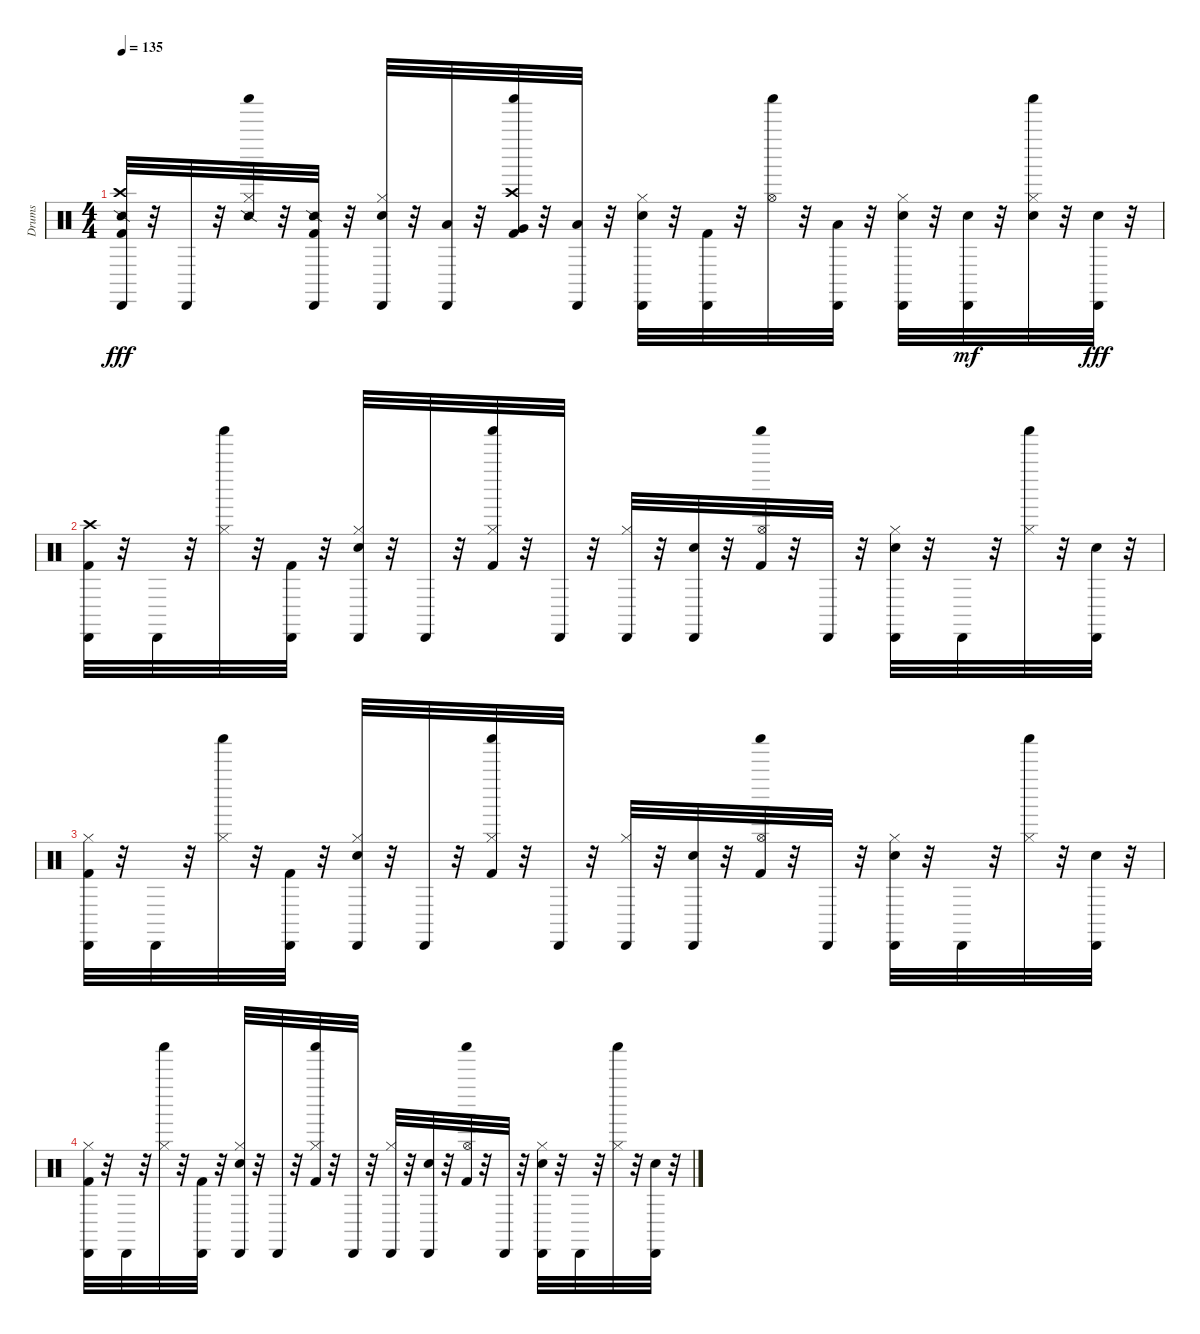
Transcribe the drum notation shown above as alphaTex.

\track ("Drums" "Drums") {instrument percussion}
\staff {score}
\articulation defaults
\ts (4 4)
\tempo 135
\clef neutral
\ks c
("Crash high (hit)" "Kick (hit) 2" "Cabasa (hit)" "Snare (side stick) 2").32{dy fff} r.32 "Cabasa (hit)".32 r.32 ("Shaker (hit)" "Hi-Hat (closed)" "Snare (side stick) 2").32 r.32 ("Kick (hit) 2" "Cabasa (hit)" "Snare (side stick) 2").32 r.32 ("Snare (hit) 2" "Hi-Hat (closed)" "Cabasa (hit)").32 r.32 ("Cabasa (hit)" "Low Tom (hit)").32 r.32 ("Kick (hit) 2" "Shaker (hit)" "Crash high (hit)" "Very Low Tom (hit)").32 r.32 ("Cabasa (hit)" "Low Floor Tom (hit)").32 r.32 ("Hi-Hat (closed)" "Cabasa (hit)" "Snare (hit) 2").32 r.32 ("Cabasa (hit)" "Kick (hit) 2").32 r.32 ("Shaker (hit)" "Hi-Hat (open)").32 r.32 ("Cabasa (hit)" "Low Floor Tom (hit)").32 r.32 ("Snare (hit) 2" "Hi-Hat (closed)" "Cabasa (hit)").32 r.32 ("Cabasa (hit)" "Snare (hit) 2").32{dy mf} r.32 ("Shaker (hit)" "Hi-Hat (closed)" "Snare (hit) 2").32 r.32 ("Snare (hit) 2" "Cabasa (hit)").32{dy fff} r.32 |
("Crash high (hit)" "Kick (hit) 2" "Cabasa (hit)").32 r.32 "Cabasa (hit)".32 r.32 ("Shaker (hit)" "Hi-Hat (closed)").32 r.32 ("Kick (hit) 2" "Cabasa (hit)").32 r.32 ("Snare (hit) 2" "Hi-Hat (closed)" "Cabasa (hit)").32 r.32 "Cabasa (hit)".32 r.32 ("Kick (hit) 2" "Shaker (hit)" "Hi-Hat (closed)").32 r.32 "Cabasa (hit)".32 r.32 ("Hi-Hat (closed)" "Cabasa (hit)").32 r.32 ("Snare (hit) 2" "Cabasa (hit)").32 r.32 ("Kick (hit) 2" "Shaker (hit)" "Hi-Hat (open)").32 r.32 "Cabasa (hit)".32 r.32 ("Snare (hit) 2" "Hi-Hat (closed)" "Cabasa (hit)").32 r.32 "Cabasa (hit)".32 r.32 ("Shaker (hit)" "Hi-Hat (closed)").32 r.32 ("Snare (hit) 2" "Cabasa (hit)").32 r.32 |
("Hi-Hat (closed)" "Kick (hit) 2" "Cabasa (hit)").32 r.32 "Cabasa (hit)".32 r.32 ("Shaker (hit)" "Hi-Hat (closed)").32 r.32 ("Kick (hit) 2" "Cabasa (hit)").32 r.32 ("Snare (hit) 2" "Hi-Hat (closed)" "Cabasa (hit)").32 r.32 "Cabasa (hit)".32 r.32 ("Kick (hit) 2" "Shaker (hit)" "Hi-Hat (closed)").32 r.32 "Cabasa (hit)".32 r.32 ("Hi-Hat (closed)" "Cabasa (hit)").32 r.32 ("Snare (hit) 2" "Cabasa (hit)").32 r.32 ("Kick (hit) 2" "Shaker (hit)" "Hi-Hat (open)").32 r.32 "Cabasa (hit)".32 r.32 ("Snare (hit) 2" "Hi-Hat (closed)" "Cabasa (hit)").32 r.32 "Cabasa (hit)".32 r.32 ("Shaker (hit)" "Hi-Hat (closed)").32 r.32 ("Snare (hit) 2" "Cabasa (hit)").32 r.32 |
("Hi-Hat (closed)" "Kick (hit) 2" "Cabasa (hit)").32 r.32 "Cabasa (hit)".32 r.32 ("Shaker (hit)" "Hi-Hat (closed)").32 r.32 ("Kick (hit) 2" "Cabasa (hit)").32 r.32 ("Snare (hit) 2" "Hi-Hat (closed)" "Cabasa (hit)").32 r.32 "Cabasa (hit)".32 r.32 ("Kick (hit) 2" "Shaker (hit)" "Hi-Hat (closed)").32 r.32 "Cabasa (hit)".32 r.32 ("Hi-Hat (closed)" "Cabasa (hit)").32 r.32 ("Snare (hit) 2" "Cabasa (hit)").32 r.32 ("Kick (hit) 2" "Shaker (hit)" "Hi-Hat (open)").32 r.32 "Cabasa (hit)".32 r.32 ("Snare (hit) 2" "Hi-Hat (closed)" "Cabasa (hit)").32 r.32 "Cabasa (hit)".32 r.32 ("Shaker (hit)" "Hi-Hat (closed)").32 r.32 ("Snare (hit) 2" "Cabasa (hit)").32 r.32
